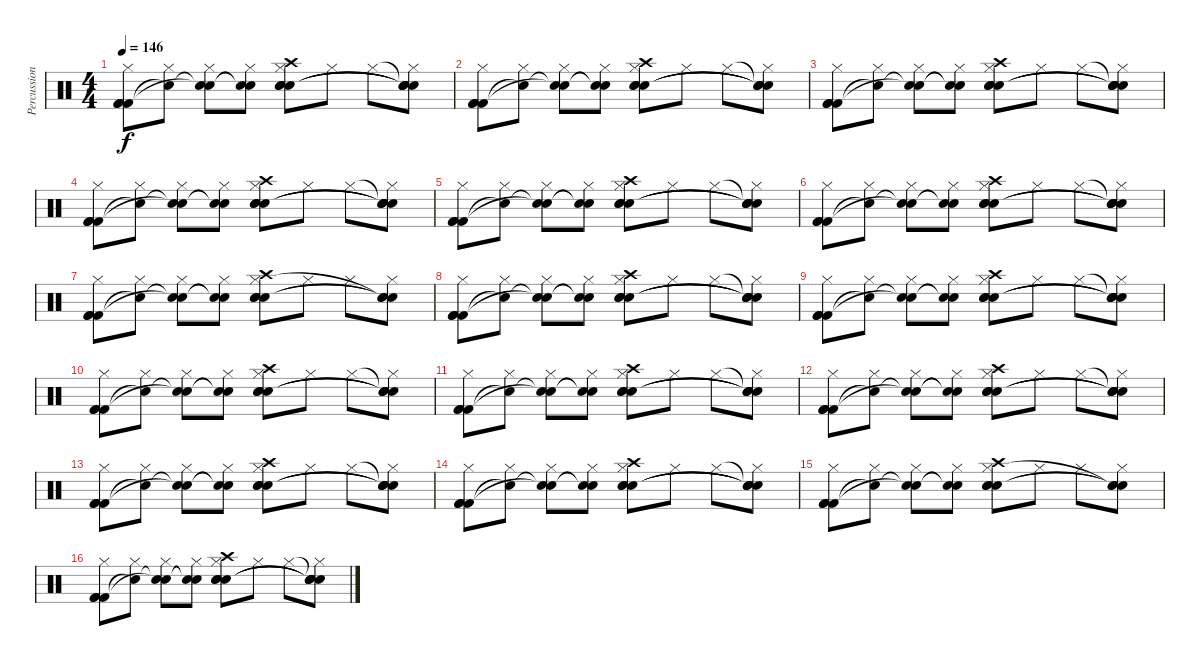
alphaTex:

\track ("Percussion" "Percussion") {instrument percussion}
\staff {score}
\articulation defaults
\ts (4 4)
\tempo 146
\clef neutral
\ks c
("Hi-Hat (closed)" "Kick (hit) 2" "Kick (hit) 2" "Kick (hit) 2").8{dy f} ("Hi-Hat (closed)" "Snare (hit)"{t}).8 ("Hi-Hat (closed)" "Snare (hit)"{t} "Snare (hit)"{t}).8 ("Hi-Hat (closed)" "Snare (hit)"{t} "Snare (hit)"{t}).8 ("Crash high (hit)" "Hi-Hat (closed)" "Snare (hit) 2" "Snare (hit) 2" "Snare (hit) 2").8 "Hi-Hat (closed)".8 "Hi-Hat (closed)".8 ("Snare (hit)"{t} "Hi-Hat (closed)" "Snare (hit)"{t} "Snare (hit)"{t} "Snare (hit)"{t}).8 |
("Hi-Hat (closed)" "Kick (hit) 2" "Kick (hit) 2" "Kick (hit) 2").8 ("Hi-Hat (closed)" "Snare (hit)"{t}).8 ("Hi-Hat (closed)" "Snare (hit)"{t} "Snare (hit)"{t}).8 ("Hi-Hat (closed)" "Snare (hit)"{t} "Snare (hit)"{t}).8 ("Crash high (hit)" "Hi-Hat (closed)" "Snare (hit) 2" "Snare (hit) 2" "Snare (hit) 2").8 "Hi-Hat (closed)".8 "Hi-Hat (closed)".8 ("Snare (hit)"{t} "Hi-Hat (closed)" "Snare (hit)"{t} "Snare (hit)"{t} "Snare (hit)"{t}).8 |
("Hi-Hat (closed)" "Kick (hit) 2" "Kick (hit) 2" "Kick (hit) 2").8 ("Hi-Hat (closed)" "Snare (hit)"{t}).8 ("Hi-Hat (closed)" "Snare (hit)"{t} "Snare (hit)"{t}).8 ("Hi-Hat (closed)" "Snare (hit)"{t} "Snare (hit)"{t}).8 ("Crash high (hit)" "Hi-Hat (closed)" "Snare (hit) 2" "Snare (hit) 2" "Snare (hit) 2").8 "Hi-Hat (closed)".8 "Hi-Hat (closed)".8 ("Snare (hit)"{t} "Hi-Hat (closed)" "Snare (hit)"{t} "Snare (hit)"{t} "Snare (hit)"{t}).8 |
("Hi-Hat (closed)" "Kick (hit) 2" "Kick (hit) 2" "Kick (hit) 2").8 ("Hi-Hat (closed)" "Snare (hit)"{t}).8 ("Hi-Hat (closed)" "Snare (hit)"{t} "Snare (hit)"{t}).8 ("Hi-Hat (closed)" "Snare (hit)"{t} "Snare (hit)"{t}).8 ("Crash high (hit)" "Hi-Hat (closed)" "Snare (hit) 2" "Snare (hit) 2" "Snare (hit) 2").8 "Hi-Hat (closed)".8 "Hi-Hat (closed)".8 ("Snare (hit)"{t} "Hi-Hat (closed)" "Snare (hit)"{t} "Snare (hit)"{t} "Snare (hit)"{t}).8 |
("Hi-Hat (closed)" "Kick (hit) 2" "Kick (hit) 2" "Kick (hit) 2").8 ("Hi-Hat (closed)" "Snare (hit)"{t}).8 ("Hi-Hat (closed)" "Snare (hit)"{t} "Snare (hit)"{t}).8 ("Hi-Hat (closed)" "Snare (hit)"{t} "Snare (hit)"{t}).8 ("Crash high (hit)" "Hi-Hat (closed)" "Snare (hit) 2" "Snare (hit) 2" "Snare (hit) 2").8 "Hi-Hat (closed)".8 "Hi-Hat (closed)".8 ("Snare (hit)"{t} "Hi-Hat (closed)" "Snare (hit)"{t} "Snare (hit)"{t} "Snare (hit)"{t}).8 |
("Hi-Hat (closed)" "Kick (hit) 2" "Kick (hit) 2" "Kick (hit) 2").8 ("Hi-Hat (closed)" "Snare (hit)"{t}).8 ("Hi-Hat (closed)" "Snare (hit)"{t} "Snare (hit)"{t}).8 ("Hi-Hat (closed)" "Snare (hit)"{t} "Snare (hit)"{t}).8 ("Crash high (hit)" "Hi-Hat (closed)" "Snare (hit) 2" "Snare (hit) 2" "Snare (hit) 2").8 "Hi-Hat (closed)".8 "Hi-Hat (closed)".8 ("Snare (hit)"{t} "Hi-Hat (closed)" "Snare (hit)"{t} "Snare (hit)"{t} "Snare (hit)"{t}).8 |
("Hi-Hat (closed)" "Kick (hit) 2" "Kick (hit) 2" "Kick (hit) 2").8 ("Hi-Hat (closed)" "Snare (hit)"{t}).8 ("Hi-Hat (closed)" "Snare (hit)"{t} "Snare (hit)"{t}).8 ("Hi-Hat (closed)" "Snare (hit)"{t} "Snare (hit)"{t}).8 ("Crash high (hit)" "Hi-Hat (closed)" "Snare (hit) 2" "Snare (hit) 2" "Snare (hit) 2").8 "Hi-Hat (closed)".8 "Hi-Hat (closed)".8 ("Hi-Hat (closed)" "Snare (hit)"{t} "Snare (hit)"{t} "Snare (hit)"{t}).8 |
("Hi-Hat (closed)" "Kick (hit) 2" "Kick (hit) 2" "Kick (hit) 2").8 ("Hi-Hat (closed)" "Snare (hit)"{t}).8 ("Hi-Hat (closed)" "Snare (hit)"{t} "Snare (hit)"{t}).8 ("Hi-Hat (closed)" "Snare (hit)"{t} "Snare (hit)"{t}).8 ("Crash high (hit)" "Hi-Hat (closed)" "Snare (hit) 2" "Snare (hit) 2" "Snare (hit) 2").8 "Hi-Hat (closed)".8 "Hi-Hat (closed)".8 ("Snare (hit)"{t} "Hi-Hat (closed)" "Snare (hit)"{t} "Snare (hit)"{t} "Snare (hit)"{t}).8 |
("Hi-Hat (closed)" "Kick (hit) 2" "Kick (hit) 2" "Kick (hit) 2").8 ("Hi-Hat (closed)" "Snare (hit)"{t}).8 ("Hi-Hat (closed)" "Snare (hit)"{t} "Snare (hit)"{t}).8 ("Hi-Hat (closed)" "Snare (hit)"{t} "Snare (hit)"{t}).8 ("Crash high (hit)" "Hi-Hat (closed)" "Snare (hit) 2" "Snare (hit) 2" "Snare (hit) 2").8 "Hi-Hat (closed)".8 "Hi-Hat (closed)".8 ("Snare (hit)"{t} "Hi-Hat (closed)" "Snare (hit)"{t} "Snare (hit)"{t} "Snare (hit)"{t}).8 |
("Hi-Hat (closed)" "Kick (hit) 2" "Kick (hit) 2" "Kick (hit) 2").8 ("Hi-Hat (closed)" "Snare (hit)"{t}).8 ("Hi-Hat (closed)" "Snare (hit)"{t} "Snare (hit)"{t}).8 ("Hi-Hat (closed)" "Snare (hit)"{t} "Snare (hit)"{t}).8 ("Crash high (hit)" "Hi-Hat (closed)" "Snare (hit) 2" "Snare (hit) 2" "Snare (hit) 2").8 "Hi-Hat (closed)".8 "Hi-Hat (closed)".8 ("Snare (hit)"{t} "Hi-Hat (closed)" "Snare (hit)"{t} "Snare (hit)"{t} "Snare (hit)"{t}).8 |
("Hi-Hat (closed)" "Kick (hit) 2" "Kick (hit) 2" "Kick (hit) 2").8 ("Hi-Hat (closed)" "Snare (hit)"{t}).8 ("Hi-Hat (closed)" "Snare (hit)"{t} "Snare (hit)"{t}).8 ("Hi-Hat (closed)" "Snare (hit)"{t} "Snare (hit)"{t}).8 ("Crash high (hit)" "Hi-Hat (closed)" "Snare (hit) 2" "Snare (hit) 2" "Snare (hit) 2").8 "Hi-Hat (closed)".8 "Hi-Hat (closed)".8 ("Snare (hit)"{t} "Hi-Hat (closed)" "Snare (hit)"{t} "Snare (hit)"{t} "Snare (hit)"{t}).8 |
("Hi-Hat (closed)" "Kick (hit) 2" "Kick (hit) 2" "Kick (hit) 2").8 ("Hi-Hat (closed)" "Snare (hit)"{t}).8 ("Hi-Hat (closed)" "Snare (hit)"{t} "Snare (hit)"{t}).8 ("Hi-Hat (closed)" "Snare (hit)"{t} "Snare (hit)"{t}).8 ("Crash high (hit)" "Hi-Hat (closed)" "Snare (hit) 2" "Snare (hit) 2" "Snare (hit) 2").8 "Hi-Hat (closed)".8 "Hi-Hat (closed)".8 ("Snare (hit)"{t} "Hi-Hat (closed)" "Snare (hit)"{t} "Snare (hit)"{t} "Snare (hit)"{t}).8 |
("Hi-Hat (closed)" "Kick (hit) 2" "Kick (hit) 2" "Kick (hit) 2").8 ("Hi-Hat (closed)" "Snare (hit)"{t}).8 ("Hi-Hat (closed)" "Snare (hit)"{t} "Snare (hit)"{t}).8 ("Hi-Hat (closed)" "Snare (hit)"{t} "Snare (hit)"{t}).8 ("Crash high (hit)" "Hi-Hat (closed)" "Snare (hit) 2" "Snare (hit) 2" "Snare (hit) 2").8 "Hi-Hat (closed)".8 "Hi-Hat (closed)".8 ("Snare (hit)"{t} "Hi-Hat (closed)" "Snare (hit)"{t} "Snare (hit)"{t} "Snare (hit)"{t}).8 |
("Hi-Hat (closed)" "Kick (hit) 2" "Kick (hit) 2" "Kick (hit) 2").8 ("Hi-Hat (closed)" "Snare (hit)"{t}).8 ("Hi-Hat (closed)" "Snare (hit)"{t} "Snare (hit)"{t}).8 ("Hi-Hat (closed)" "Snare (hit)"{t} "Snare (hit)"{t}).8 ("Crash high (hit)" "Hi-Hat (closed)" "Snare (hit) 2" "Snare (hit) 2" "Snare (hit) 2").8 "Hi-Hat (closed)".8 "Hi-Hat (closed)".8 ("Snare (hit)"{t} "Hi-Hat (closed)" "Snare (hit)"{t} "Snare (hit)"{t} "Snare (hit)"{t}).8 |
("Hi-Hat (closed)" "Kick (hit) 2" "Kick (hit) 2" "Kick (hit) 2").8 ("Hi-Hat (closed)" "Snare (hit)"{t}).8 ("Hi-Hat (closed)" "Snare (hit)"{t} "Snare (hit)"{t}).8 ("Hi-Hat (closed)" "Snare (hit)"{t} "Snare (hit)"{t}).8 ("Crash high (hit)" "Hi-Hat (closed)" "Snare (hit) 2" "Snare (hit) 2" "Snare (hit) 2").8 "Hi-Hat (closed)".8 "Hi-Hat (closed)".8 ("Hi-Hat (closed)" "Snare (hit)"{t} "Snare (hit)"{t} "Snare (hit)"{t}).8 |
("Hi-Hat (closed)" "Kick (hit) 2" "Kick (hit) 2" "Kick (hit) 2").8 ("Hi-Hat (closed)" "Snare (hit)"{t}).8 ("Hi-Hat (closed)" "Snare (hit)"{t} "Snare (hit)"{t}).8 ("Hi-Hat (closed)" "Snare (hit)"{t} "Snare (hit)"{t}).8 ("Crash high (hit)" "Hi-Hat (closed)" "Snare (hit) 2" "Snare (hit) 2" "Snare (hit) 2").8 "Hi-Hat (closed)".8 "Hi-Hat (closed)".8 ("Snare (hit)"{t} "Hi-Hat (closed)" "Snare (hit)"{t} "Snare (hit)"{t} "Snare (hit)"{t}).8
